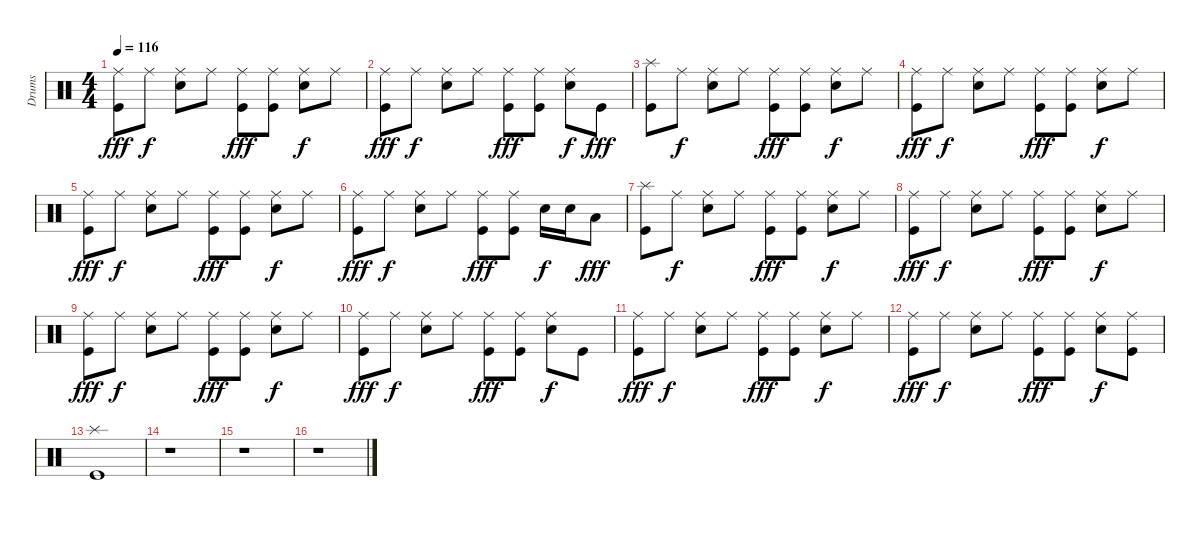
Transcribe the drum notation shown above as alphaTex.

\track ("Drums" "Drums") {instrument percussion}
\staff {score}
\articulation defaults
\ts (4 4)
\tempo 116
\clef neutral
\ks c
("Ride (middle)" "Kick (hit)").8{dy fff} "Ride (middle)".8{dy f} ("Ride (middle)" "Snare (hit) 2").8 "Ride (middle)".8 ("Ride (middle)" "Kick (hit)").8{dy fff} ("Ride (middle)" "Kick (hit)").8 ("Ride (middle)" "Snare (hit) 2").8{dy f} "Ride (middle)".8 |
("Ride (middle)" "Kick (hit)").8{dy fff} "Ride (middle)".8{dy f} ("Ride (middle)" "Snare (hit) 2").8 "Ride (middle)".8 ("Ride (middle)" "Kick (hit)").8{dy fff} ("Ride (middle)" "Kick (hit)").8 ("Ride (middle)" "Snare (hit) 2").8{dy f} "Kick (hit)".8{dy fff} |
("Splash (hit)" "Kick (hit)").8 "Ride (middle)".8{dy f} ("Ride (middle)" "Snare (hit) 2").8 "Ride (middle)".8 ("Ride (middle)" "Kick (hit)").8{dy fff} ("Ride (middle)" "Kick (hit)").8 ("Ride (middle)" "Snare (hit) 2").8{dy f} "Ride (middle)".8 |
("Ride (middle)" "Kick (hit)").8{dy fff} "Ride (middle)".8{dy f} ("Ride (middle)" "Snare (hit) 2").8 "Ride (middle)".8 ("Ride (middle)" "Kick (hit)").8{dy fff} ("Ride (middle)" "Kick (hit)").8 ("Ride (middle)" "Snare (hit) 2").8{dy f} "Ride (middle)".8 |
("Ride (middle)" "Kick (hit)").8{dy fff} "Ride (middle)".8{dy f} ("Ride (middle)" "Snare (hit) 2").8 "Ride (middle)".8 ("Ride (middle)" "Kick (hit)").8{dy fff} ("Ride (middle)" "Kick (hit)").8 ("Ride (middle)" "Snare (hit) 2").8{dy f} "Ride (middle)".8 |
("Ride (middle)" "Kick (hit)").8{dy fff} "Ride (middle)".8{dy f} ("Ride (middle)" "Snare (hit) 2").8 "Ride (middle)".8 ("Ride (middle)" "Kick (hit)").8{dy fff} ("Ride (middle)" "Kick (hit)").8 "Snare (hit) 2".16{dy f} "Snare (hit) 2".16 "Low Tom (hit)".8{dy fff} |
("Splash (hit)" "Kick (hit)").8 "Ride (middle)".8{dy f} ("Ride (middle)" "Snare (hit) 2").8 "Ride (middle)".8 ("Ride (middle)" "Kick (hit)").8{dy fff} ("Ride (middle)" "Kick (hit)").8 ("Ride (middle)" "Snare (hit) 2").8{dy f} "Ride (middle)".8 |
("Ride (middle)" "Kick (hit)").8{dy fff} "Ride (middle)".8{dy f} ("Ride (middle)" "Snare (hit) 2").8 "Ride (middle)".8 ("Ride (middle)" "Kick (hit)").8{dy fff} ("Ride (middle)" "Kick (hit)").8 ("Ride (middle)" "Snare (hit) 2").8{dy f} "Ride (middle)".8 |
("Ride (middle)" "Kick (hit)").8{dy fff} "Ride (middle)".8{dy f} ("Ride (middle)" "Snare (hit) 2").8 "Ride (middle)".8 ("Ride (middle)" "Kick (hit)").8{dy fff} ("Ride (middle)" "Kick (hit)").8 ("Ride (middle)" "Snare (hit) 2").8{dy f} "Ride (middle)".8 |
("Ride (middle)" "Kick (hit)").8{dy fff} "Ride (middle)".8{dy f} ("Ride (middle)" "Snare (hit) 2").8 "Ride (middle)".8 ("Ride (middle)" "Kick (hit)").8{dy fff} ("Ride (middle)" "Kick (hit)").8 ("Ride (middle)" "Snare (hit) 2").8{dy f} "Kick (hit)".8 |
("Ride (middle)" "Kick (hit)").8{dy fff} "Ride (middle)".8{dy f} ("Ride (middle)" "Snare (hit) 2").8 "Ride (middle)".8 ("Ride (middle)" "Kick (hit)").8{dy fff} ("Ride (middle)" "Kick (hit)").8 ("Ride (middle)" "Snare (hit) 2").8{dy f} "Ride (middle)".8 |
("Ride (middle)" "Kick (hit)").8{dy fff} "Ride (middle)".8{dy f} ("Ride (middle)" "Snare (hit) 2").8 "Ride (middle)".8 ("Ride (middle)" "Kick (hit)").8{dy fff} ("Ride (middle)" "Kick (hit)").8 ("Ride (middle)" "Snare (hit) 2").8{dy f} ("Ride (middle)" "Kick (hit)").8 |
("Splash (hit)" "Kick (hit)").1 |
r.1 |
r.1 |
r.1
